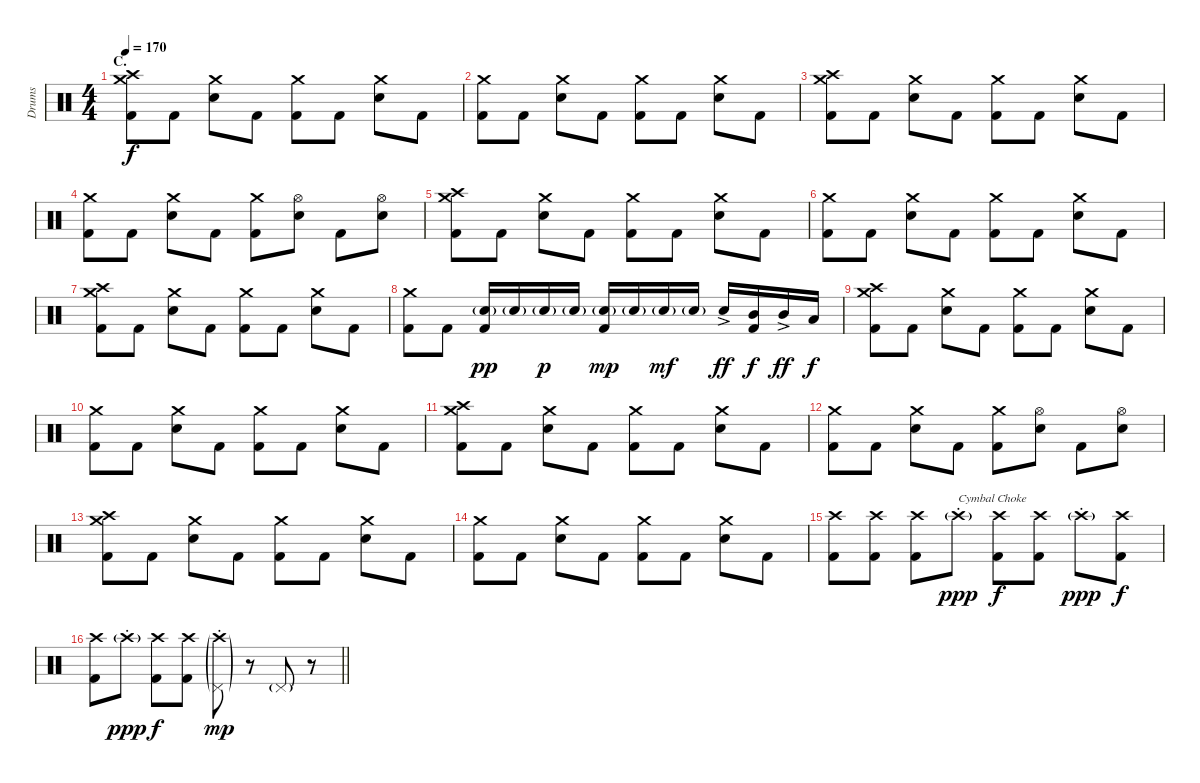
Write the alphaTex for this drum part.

\track ("Drums" "Drums") {instrument percussion}
\staff {score}
\articulation defaults
\ts (4 4)
\section ("" "C.")
\tempo 170
\clef neutral
\ks c
("Crash medium (hit)" "Crash high (hit)" "Kick (hit) 2").8{dy f} "Kick (hit) 2".8 ("Crash medium (hit)" "Electric Snare (hit)").8 "Kick (hit) 2".8 ("Crash medium (hit)" "Kick (hit) 2").8 "Kick (hit) 2".8 ("Crash medium (hit)" "Electric Snare (hit)").8 "Kick (hit) 2".8 |
("Crash medium (hit)" "Kick (hit) 2").8 "Kick (hit) 2".8 ("Crash medium (hit)" "Electric Snare (hit)").8 "Kick (hit) 2".8 ("Crash medium (hit)" "Kick (hit) 2").8 "Kick (hit) 2".8 ("Crash medium (hit)" "Electric Snare (hit)").8 "Kick (hit) 2".8 |
("Crash medium (hit)" "Crash high (hit)" "Kick (hit) 2").8 "Kick (hit) 2".8 ("Crash medium (hit)" "Electric Snare (hit)").8 "Kick (hit) 2".8 ("Crash medium (hit)" "Kick (hit) 2").8 "Kick (hit) 2".8 ("Crash medium (hit)" "Electric Snare (hit)").8 "Kick (hit) 2".8 |
("Crash medium (hit)" "Kick (hit) 2").8 "Kick (hit) 2".8 ("Crash medium (hit)" "Electric Snare (hit)").8 "Kick (hit) 2".8 ("Crash medium (hit)" "Kick (hit) 2").8 ("Hi-Hat (open)" "Electric Snare (hit)").8 "Kick (hit) 2".8 ("Hi-Hat (open)" "Electric Snare (hit)").8 |
("Crash medium (hit)" "Crash high (hit)" "Kick (hit) 2").8 "Kick (hit) 2".8 ("Crash medium (hit)" "Electric Snare (hit)").8 "Kick (hit) 2".8 ("Crash medium (hit)" "Kick (hit) 2").8 "Kick (hit) 2".8 ("Crash medium (hit)" "Electric Snare (hit)").8 "Kick (hit) 2".8 |
("Crash medium (hit)" "Kick (hit) 2").8 "Kick (hit) 2".8 ("Crash medium (hit)" "Electric Snare (hit)").8 "Kick (hit) 2".8 ("Crash medium (hit)" "Kick (hit) 2").8 "Kick (hit) 2".8 ("Crash medium (hit)" "Electric Snare (hit)").8 "Kick (hit) 2".8 |
("Crash medium (hit)" "Crash high (hit)" "Kick (hit) 2").8 "Kick (hit) 2".8 ("Crash medium (hit)" "Electric Snare (hit)").8 "Kick (hit) 2".8 ("Crash medium (hit)" "Kick (hit) 2").8 "Kick (hit) 2".8 ("Crash medium (hit)" "Electric Snare (hit)").8 "Kick (hit) 2".8 |
("Crash medium (hit)" "Kick (hit) 2").8 "Kick (hit) 2".8 ("Electric Snare (hit)"{g} "Kick (hit) 2").16{dy pp} "Electric Snare (hit)"{g}.16 "Electric Snare (hit)"{g}.16{dy p} "Electric Snare (hit)"{g}.16 ("Electric Snare (hit)"{g} "Kick (hit) 2").16{dy mp} "Electric Snare (hit)"{g}.16 "Electric Snare (hit)"{g}.16{dy mf} "Electric Snare (hit)"{g}.16 "Electric Snare (hit)"{ac}.16{dy ff} ("Mid Tom (hit)" "Kick (hit) 2").16{dy f} "Mid Tom (hit)"{ac}.16{dy ff} "Low Tom (hit)".16{dy f} |
("Crash medium (hit)" "Crash high (hit)" "Kick (hit) 2").8 "Kick (hit) 2".8 ("Crash medium (hit)" "Electric Snare (hit)").8 "Kick (hit) 2".8 ("Crash medium (hit)" "Kick (hit) 2").8 "Kick (hit) 2".8 ("Crash medium (hit)" "Electric Snare (hit)").8 "Kick (hit) 2".8 |
("Crash medium (hit)" "Kick (hit) 2").8 "Kick (hit) 2".8 ("Crash medium (hit)" "Electric Snare (hit)").8 "Kick (hit) 2".8 ("Crash medium (hit)" "Kick (hit) 2").8 "Kick (hit) 2".8 ("Crash medium (hit)" "Electric Snare (hit)").8 "Kick (hit) 2".8 |
("Crash medium (hit)" "Crash high (hit)" "Kick (hit) 2").8 "Kick (hit) 2".8 ("Crash medium (hit)" "Electric Snare (hit)").8 "Kick (hit) 2".8 ("Crash medium (hit)" "Kick (hit) 2").8 "Kick (hit) 2".8 ("Crash medium (hit)" "Electric Snare (hit)").8 "Kick (hit) 2".8 |
("Crash medium (hit)" "Kick (hit) 2").8 "Kick (hit) 2".8 ("Crash medium (hit)" "Electric Snare (hit)").8 "Kick (hit) 2".8 ("Crash medium (hit)" "Kick (hit) 2").8 ("Hi-Hat (open)" "Electric Snare (hit)").8 "Kick (hit) 2".8 ("Hi-Hat (open)" "Electric Snare (hit)").8 |
("Crash medium (hit)" "Crash high (hit)" "Kick (hit) 2").8 "Kick (hit) 2".8 ("Crash medium (hit)" "Electric Snare (hit)").8 "Kick (hit) 2".8 ("Crash medium (hit)" "Kick (hit) 2").8 "Kick (hit) 2".8 ("Crash medium (hit)" "Electric Snare (hit)").8 "Kick (hit) 2".8 |
("Crash medium (hit)" "Kick (hit) 2").8 "Kick (hit) 2".8 ("Crash medium (hit)" "Electric Snare (hit)").8 "Kick (hit) 2".8 ("Crash medium (hit)" "Kick (hit) 2").8 "Kick (hit) 2".8 ("Crash medium (hit)" "Electric Snare (hit)").8 "Kick (hit) 2".8 |
("Crash high (hit)" "Kick (hit) 2").8 ("Crash high (hit)" "Kick (hit) 2").8 ("Crash high (hit)" "Kick (hit) 2").8 "Crash high (hit)"{g st}.8{txt "Cymbal Choke" dy ppp} ("Crash high (hit)" "Kick (hit) 2").8{dy f} ("Crash high (hit)" "Kick (hit) 2").8 "Crash high (hit)"{g st}.8{dy ppp} ("Crash high (hit)" "Kick (hit) 2").8{dy f} |
\barLineRight lightlight
("Crash high (hit)" "Kick (hit) 2").8 "Crash high (hit)"{g st}.8{dy ppp} ("Crash high (hit)" "Kick (hit) 2").8{dy f} ("Crash high (hit)" "Kick (hit) 2").8 ("Crash high (hit)"{g st} "Pedal Hi-Hat (hit)"{g}).8{dy mp} r.8 "Pedal Hi-Hat (hit)"{g}.8 r.8
